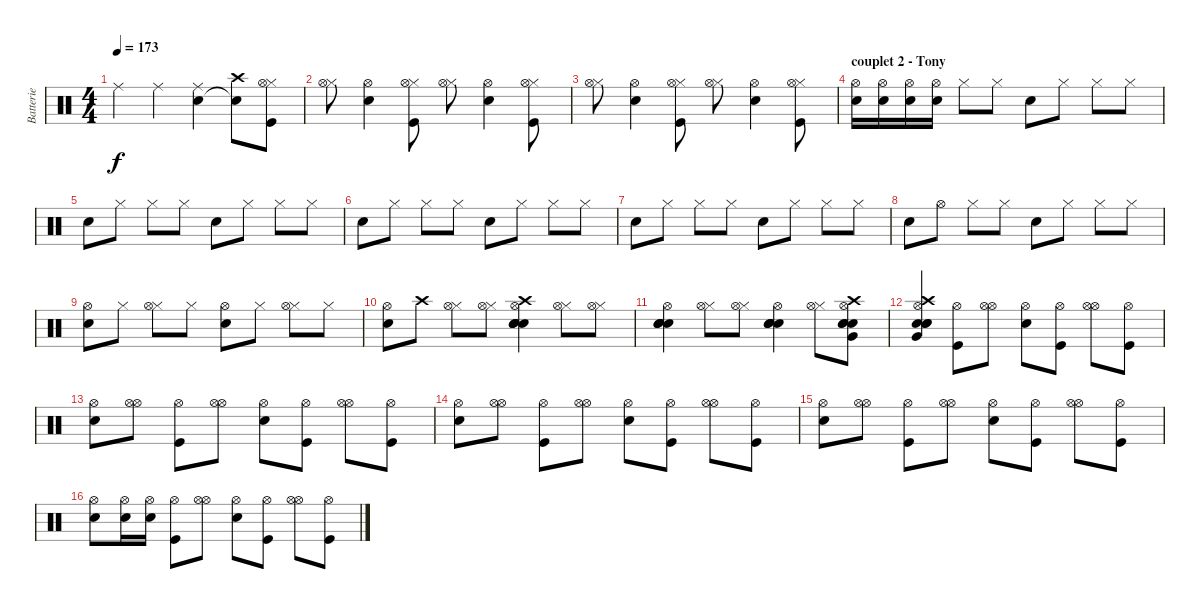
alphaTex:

\track ("Batterie" "Batterie") {instrument percussion}
\staff {score}
\articulation defaults
\ts (4 4)
\tempo 173
\clef neutral
\ks c "Ride (middle)".4{dy f} "Ride (middle)".4
("Ride (middle)" "Electric Snare (hit)").4 ("Crash high (hit)" "Snare (hit)"{t}).8 ("Hi-Hat (closed)" "Kick (hit)" "Hi-Hat (open)").8 |
("Hi-Hat (closed)" "Hi-Hat (open)").8 ("Electric Snare (hit)" "Hi-Hat (open)").4 ("Hi-Hat (closed)" "Kick (hit)" "Hi-Hat (open)").8 ("Hi-Hat (closed)" "Hi-Hat (open)").8 ("Electric Snare (hit)" "Hi-Hat (open)").4 ("Hi-Hat (closed)" "Kick (hit)" "Hi-Hat (open)").8 |
("Hi-Hat (closed)" "Hi-Hat (open)").8 ("Electric Snare (hit)" "Hi-Hat (open)").4 ("Hi-Hat (closed)" "Kick (hit)" "Hi-Hat (open)").8 ("Hi-Hat (closed)" "Hi-Hat (open)").8 ("Electric Snare (hit)" "Hi-Hat (open)").4 ("Hi-Hat (closed)" "Kick (hit)" "Hi-Hat (open)").8 |
\section ("" "couplet 2 - Tony")
("Electric Snare (hit)" "Hi-Hat (open)").16 ("Electric Snare (hit)" "Hi-Hat (open)").16 ("Electric Snare (hit)" "Hi-Hat (open)").16 ("Electric Snare (hit)" "Hi-Hat (open)").16 "Hi-Hat (closed)".8 "Hi-Hat (closed)".8 "Electric Snare (hit)".8 "Hi-Hat (closed)".8 "Hi-Hat (closed)".8 "Hi-Hat (closed)".8 |
"Electric Snare (hit)".8 "Hi-Hat (closed)".8 "Hi-Hat (closed)".8 "Hi-Hat (closed)".8 "Electric Snare (hit)".8 "Hi-Hat (closed)".8 "Hi-Hat (closed)".8 "Hi-Hat (closed)".8 |
"Electric Snare (hit)".8 "Hi-Hat (closed)".8 "Hi-Hat (closed)".8 "Hi-Hat (closed)".8 "Electric Snare (hit)".8 "Hi-Hat (closed)".8 "Hi-Hat (closed)".8 "Hi-Hat (closed)".8 |
"Electric Snare (hit)".8 "Hi-Hat (closed)".8 "Hi-Hat (closed)".8 "Hi-Hat (closed)".8 "Electric Snare (hit)".8 "Hi-Hat (closed)".8 "Hi-Hat (closed)".8 "Hi-Hat (closed)".8 |
"Electric Snare (hit)".8 "Hi-Hat (open)".8 "Hi-Hat (closed)".8 "Hi-Hat (closed)".8 "Electric Snare (hit)".8 "Hi-Hat (closed)".8 "Hi-Hat (closed)".8 "Hi-Hat (closed)".8 |
("Electric Snare (hit)" "Hi-Hat (open)").8 "Hi-Hat (closed)".8 ("Hi-Hat (closed)" "Hi-Hat (open)").8 "Hi-Hat (closed)".8 ("Electric Snare (hit)" "Hi-Hat (open)").8 "Hi-Hat (closed)".8 ("Hi-Hat (closed)" "Hi-Hat (open)").8 "Hi-Hat (closed)".8 |
("Electric Snare (hit)" "Hi-Hat (open)").8 "Crash high (hit)".8 ("Hi-Hat (closed)" "Hi-Hat (open)").8 ("Hi-Hat (closed)" "Hi-Hat (open)").8 ("Electric Snare (hit)" "Electric Snare (hit)" "Crash high (hit)" "Hi-Hat (open)" "Electric Snare (hit)" "Electric Snare (hit)").4 ("Hi-Hat (closed)" "Hi-Hat (open)").8 ("Hi-Hat (closed)" "Hi-Hat (open)").8 |
("Electric Snare (hit)" "Electric Snare (hit)" "Hi-Hat (open)" "Electric Snare (hit)" "Electric Snare (hit)").4 ("Hi-Hat (closed)" "Hi-Hat (open)").8 ("Hi-Hat (closed)" "Hi-Hat (open)").8 ("Electric Snare (hit)" "Electric Snare (hit)" "Electric Snare (hit)" "Hi-Hat (open)" "Electric Snare (hit)").4 ("Hi-Hat (closed)" "Hi-Hat (open)").8 ("Electric Snare (hit)" "Crash high (hit)" "Very Low Tom (hit)" "Hi-Hat (open)" "Electric Snare (hit)" "Electric Snare (hit)").8 |
("Electric Snare (hit)" "Crash high (hit)" "Very Low Tom (hit)" "Hi-Hat (open)" "Electric Snare (hit)" "Electric Snare (hit)").4 ("Kick (hit)" "Hi-Hat (open)").8 ("Hi-Hat (open)" "Hi-Hat (open)").8 ("Electric Snare (hit)" "Hi-Hat (open)").8 ("Kick (hit)" "Hi-Hat (open)").8 ("Hi-Hat (open)" "Hi-Hat (open)").8 ("Kick (hit)" "Hi-Hat (open)").8 |
("Electric Snare (hit)" "Hi-Hat (open)").8 ("Hi-Hat (open)" "Hi-Hat (open)").8 ("Kick (hit)" "Hi-Hat (open)").8 ("Hi-Hat (open)" "Hi-Hat (open)").8 ("Electric Snare (hit)" "Hi-Hat (open)").8 ("Kick (hit)" "Hi-Hat (open)").8 ("Hi-Hat (open)" "Hi-Hat (open)").8 ("Kick (hit)" "Hi-Hat (open)").8 |
("Electric Snare (hit)" "Hi-Hat (open)").8 ("Hi-Hat (open)" "Hi-Hat (open)").8 ("Kick (hit)" "Hi-Hat (open)").8 ("Hi-Hat (open)" "Hi-Hat (open)").8 ("Electric Snare (hit)" "Hi-Hat (open)").8 ("Kick (hit)" "Hi-Hat (open)").8 ("Hi-Hat (open)" "Hi-Hat (open)").8 ("Kick (hit)" "Hi-Hat (open)").8 |
("Electric Snare (hit)" "Hi-Hat (open)").8 ("Hi-Hat (open)" "Hi-Hat (open)").8 ("Kick (hit)" "Hi-Hat (open)").8 ("Hi-Hat (open)" "Hi-Hat (open)").8 ("Electric Snare (hit)" "Hi-Hat (open)").8 ("Kick (hit)" "Hi-Hat (open)").8 ("Hi-Hat (open)" "Hi-Hat (open)").8 ("Kick (hit)" "Hi-Hat (open)").8 |
("Electric Snare (hit)" "Hi-Hat (open)").8 ("Electric Snare (hit)" "Hi-Hat (open)").16 ("Electric Snare (hit)" "Hi-Hat (open)").16 ("Kick (hit)" "Hi-Hat (open)").8 ("Hi-Hat (open)" "Hi-Hat (open)").8 ("Electric Snare (hit)" "Hi-Hat (open)").8 ("Kick (hit)" "Hi-Hat (open)").8 ("Hi-Hat (open)" "Hi-Hat (open)").8 ("Kick (hit)" "Hi-Hat (open)").8
